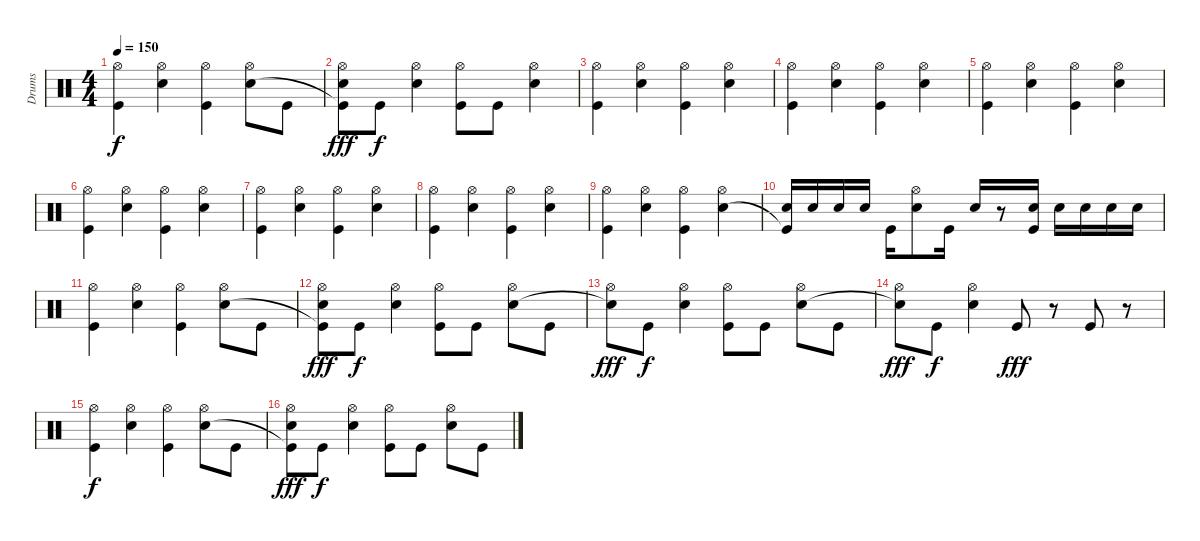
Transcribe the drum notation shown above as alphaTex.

\track ("Drums" "Drums") {instrument percussion}
\staff {score}
\articulation defaults
\ts (4 4)
\tempo 150
\clef neutral
\ks c
("Hi-Hat (open)" "Kick (hit)").4{dy f} ("Hi-Hat (open)" "Snare (hit) 2").4 ("Hi-Hat (open)" "Kick (hit)").4 ("Hi-Hat (open)" "Snare (hit) 2").8 "Kick (hit)".8 |
("Hi-Hat (open)" "Kick (hit)"{t} "Snare (hit)").8{dy fff} "Kick (hit)".8{dy f} ("Hi-Hat (open)" "Snare (hit) 2").4 ("Hi-Hat (open)" "Kick (hit)").8 "Kick (hit)".8 ("Hi-Hat (open)" "Snare (hit) 2").4 |
("Hi-Hat (open)" "Kick (hit)").4 ("Hi-Hat (open)" "Snare (hit) 2").4 ("Hi-Hat (open)" "Kick (hit)").4 ("Hi-Hat (open)" "Snare (hit) 2").4 |
("Hi-Hat (open)" "Kick (hit)").4 ("Hi-Hat (open)" "Snare (hit) 2").4 ("Hi-Hat (open)" "Kick (hit)").4 ("Hi-Hat (open)" "Snare (hit) 2").4 |
("Hi-Hat (open)" "Kick (hit)").4 ("Hi-Hat (open)" "Snare (hit) 2").4 ("Hi-Hat (open)" "Kick (hit)").4 ("Hi-Hat (open)" "Snare (hit) 2").4 |
("Hi-Hat (open)" "Kick (hit)").4 ("Hi-Hat (open)" "Snare (hit) 2").4 ("Hi-Hat (open)" "Kick (hit)").4 ("Hi-Hat (open)" "Snare (hit) 2").4 |
("Hi-Hat (open)" "Kick (hit)").4 ("Hi-Hat (open)" "Snare (hit) 2").4 ("Hi-Hat (open)" "Kick (hit)").4 ("Hi-Hat (open)" "Snare (hit) 2").4 |
("Hi-Hat (open)" "Kick (hit)").4 ("Hi-Hat (open)" "Snare (hit) 2").4 ("Hi-Hat (open)" "Kick (hit)").4 ("Hi-Hat (open)" "Snare (hit) 2").4 |
("Hi-Hat (open)" "Kick (hit)").4 ("Hi-Hat (open)" "Snare (hit) 2").4 ("Hi-Hat (open)" "Kick (hit)").4 ("Hi-Hat (open)" "Snare (hit) 2").4 |
("Snare (hit) 2" "Kick (hit)"{t}).16 "Snare (hit) 2".16 "Snare (hit) 2".16 "Snare (hit) 2".16 "Kick (hit)".16 ("Hi-Hat (open)" "Snare (hit) 2").8 "Kick (hit)".16 "Snare (hit) 2".16 r.8 ("Snare (hit) 2" "Kick (hit)").16 "Snare (hit) 2".16 "Snare (hit) 2".16 "Snare (hit) 2".16 "Snare (hit) 2".16 |
("Hi-Hat (open)" "Kick (hit)").4 ("Hi-Hat (open)" "Snare (hit) 2").4 ("Hi-Hat (open)" "Kick (hit)").4 ("Hi-Hat (open)" "Snare (hit) 2").8 "Kick (hit)".8 |
("Hi-Hat (open)" "Kick (hit)"{t} "Snare (hit)").8{dy fff} "Kick (hit)".8{dy f} ("Hi-Hat (open)" "Snare (hit) 2").4 ("Hi-Hat (open)" "Kick (hit)").8 "Kick (hit)".8 ("Hi-Hat (open)" "Snare (hit) 2").8 "Kick (hit)".8 |
("Hi-Hat (open)" "Snare (hit)"{t}).8{dy fff} "Kick (hit)".8{dy f} ("Hi-Hat (open)" "Snare (hit) 2").4 ("Hi-Hat (open)" "Kick (hit)").8 "Kick (hit)".8 ("Hi-Hat (open)" "Snare (hit) 2").8 "Kick (hit)".8 |
("Hi-Hat (open)" "Snare (hit)"{t}).8{dy fff} "Kick (hit)".8{dy f} ("Hi-Hat (open)" "Snare (hit) 2").4 "Kick (hit)".8{dy fff} r.8 "Kick (hit)".8 r.8 |
("Hi-Hat (open)" "Kick (hit)").4{dy f} ("Hi-Hat (open)" "Snare (hit) 2").4 ("Hi-Hat (open)" "Kick (hit)").4 ("Hi-Hat (open)" "Snare (hit) 2").8 "Kick (hit)".8 |
("Hi-Hat (open)" "Kick (hit)"{t} "Snare (hit)").8{dy fff} "Kick (hit)".8{dy f} ("Hi-Hat (open)" "Snare (hit) 2").4 ("Hi-Hat (open)" "Kick (hit)").8 "Kick (hit)".8 ("Hi-Hat (open)" "Snare (hit) 2").8 "Kick (hit)".8
